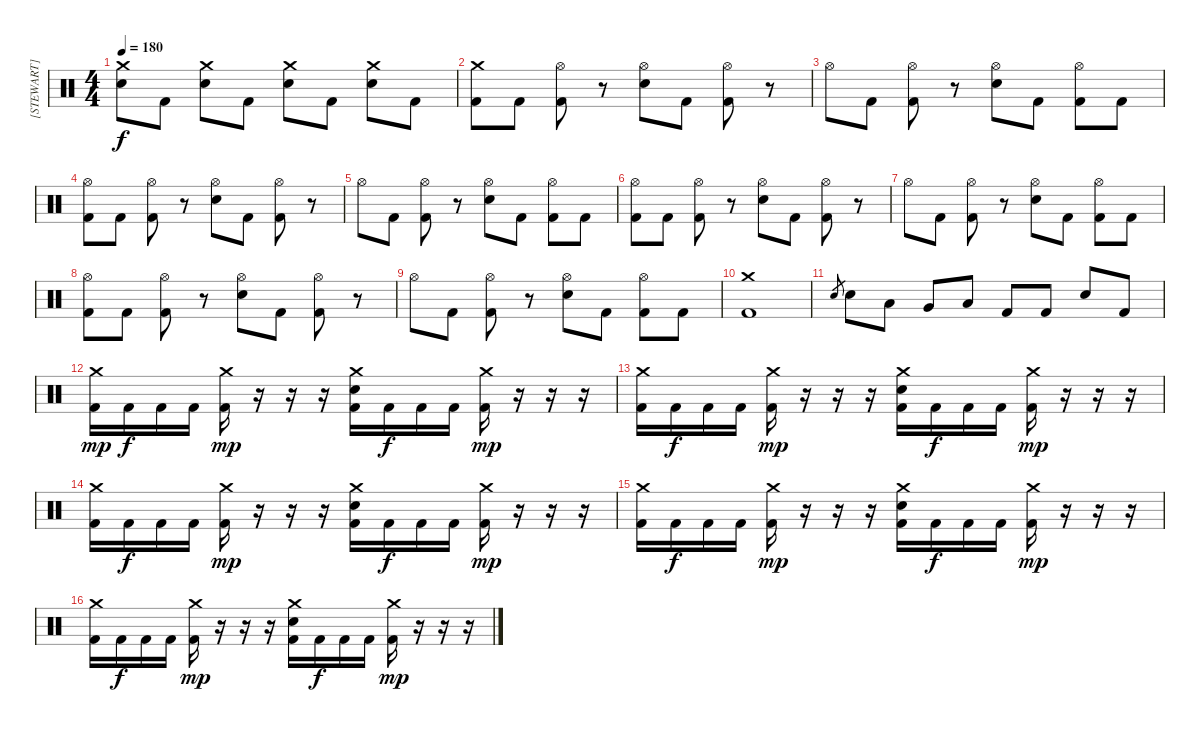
\track ("[STEWART]" "[STEWART]") {instrument percussion}
\staff {score}
\articulation defaults
\ts (4 4)
\tempo 180
\clef neutral
\ks c
("Crash medium (hit)" "Snare (hit) 2").8{dy f} "Kick (hit) 2".8 ("Crash medium (hit)" "Snare (hit) 2").8 "Kick (hit) 2".8 ("Crash medium (hit)" "Snare (hit) 2").8 "Kick (hit) 2".8 ("Crash medium (hit)" "Snare (hit) 2").8 "Kick (hit) 2".8 |
("Crash medium (hit)" "Kick (hit) 2").8 "Kick (hit) 2".8 ("Hi-Hat (open)" "Kick (hit) 2").8 r.8 ("Hi-Hat (open)" "Snare (hit) 2").8 "Kick (hit) 2".8 ("Hi-Hat (open)" "Kick (hit) 2").8 r.8 |
"Hi-Hat (open)".8 "Kick (hit) 2".8 ("Hi-Hat (open)" "Kick (hit) 2").8 r.8 ("Hi-Hat (open)" "Snare (hit) 2").8 "Kick (hit) 2".8 ("Hi-Hat (open)" "Kick (hit) 2").8 "Kick (hit) 2".8 |
("Hi-Hat (open)" "Kick (hit) 2").8 "Kick (hit) 2".8 ("Hi-Hat (open)" "Kick (hit) 2").8 r.8 ("Hi-Hat (open)" "Snare (hit) 2").8 "Kick (hit) 2".8 ("Hi-Hat (open)" "Kick (hit) 2").8 r.8 |
"Hi-Hat (open)".8 "Kick (hit) 2".8 ("Hi-Hat (open)" "Kick (hit) 2").8 r.8 ("Hi-Hat (open)" "Snare (hit) 2").8 "Kick (hit) 2".8 ("Hi-Hat (open)" "Kick (hit) 2").8 "Kick (hit) 2".8 |
("Hi-Hat (open)" "Kick (hit) 2").8 "Kick (hit) 2".8 ("Hi-Hat (open)" "Kick (hit) 2").8 r.8 ("Hi-Hat (open)" "Snare (hit) 2").8 "Kick (hit) 2".8 ("Hi-Hat (open)" "Kick (hit) 2").8 r.8 |
"Hi-Hat (open)".8 "Kick (hit) 2".8 ("Hi-Hat (open)" "Kick (hit) 2").8 r.8 ("Hi-Hat (open)" "Snare (hit) 2").8 "Kick (hit) 2".8 ("Hi-Hat (open)" "Kick (hit) 2").8 "Kick (hit) 2".8 |
("Hi-Hat (open)" "Kick (hit) 2").8 "Kick (hit) 2".8 ("Hi-Hat (open)" "Kick (hit) 2").8 r.8 ("Hi-Hat (open)" "Snare (hit) 2").8 "Kick (hit) 2".8 ("Hi-Hat (open)" "Kick (hit) 2").8 r.8 |
"Hi-Hat (open)".8 "Kick (hit) 2".8 ("Hi-Hat (open)" "Kick (hit) 2").8 r.8 ("Hi-Hat (open)" "Snare (hit) 2").8 "Kick (hit) 2".8 ("Hi-Hat (open)" "Kick (hit) 2").8 "Kick (hit) 2".8 |
("Crash medium (hit)" "Kick (hit) 2").1 |
"Snare (hit) 2".8{gr} "Snare (hit) 2".8 "Low Tom (hit)".8 "Very Low Tom (hit)".8 "Low Floor Tom (hit)".8 "Kick (hit) 2".8 "Kick (hit) 2".8 "Snare (hit) 2".8 "Kick (hit) 2".8 |
("Crash medium (hit)" "Kick (hit) 2").16{dy mp} "Kick (hit) 2".16{dy f} "Kick (hit) 2".16 "Kick (hit) 2".16 ("Crash medium (hit)" "Kick (hit) 2").16{dy mp} r.16 r.16 r.16 ("Crash medium (hit)" "Snare (hit) 2" "Kick (hit) 2").16 "Kick (hit) 2".16{dy f} "Kick (hit) 2".16 "Kick (hit) 2".16 ("Crash medium (hit)" "Kick (hit) 2").16{dy mp} r.16 r.16 r.16 |
("Crash medium (hit)" "Kick (hit) 2").16 "Kick (hit) 2".16{dy f} "Kick (hit) 2".16 "Kick (hit) 2".16 ("Crash medium (hit)" "Kick (hit) 2").16{dy mp} r.16 r.16 r.16 ("Crash medium (hit)" "Snare (hit) 2" "Kick (hit) 2").16 "Kick (hit) 2".16{dy f} "Kick (hit) 2".16 "Kick (hit) 2".16 ("Crash medium (hit)" "Kick (hit) 2").16{dy mp} r.16 r.16 r.16 |
("Crash medium (hit)" "Kick (hit) 2").16 "Kick (hit) 2".16{dy f} "Kick (hit) 2".16 "Kick (hit) 2".16 ("Crash medium (hit)" "Kick (hit) 2").16{dy mp} r.16 r.16 r.16 ("Crash medium (hit)" "Snare (hit) 2" "Kick (hit) 2").16 "Kick (hit) 2".16{dy f} "Kick (hit) 2".16 "Kick (hit) 2".16 ("Crash medium (hit)" "Kick (hit) 2").16{dy mp} r.16 r.16 r.16 |
("Crash medium (hit)" "Kick (hit) 2").16 "Kick (hit) 2".16{dy f} "Kick (hit) 2".16 "Kick (hit) 2".16 ("Crash medium (hit)" "Kick (hit) 2").16{dy mp} r.16 r.16 r.16 ("Crash medium (hit)" "Snare (hit) 2" "Kick (hit) 2").16 "Kick (hit) 2".16{dy f} "Kick (hit) 2".16 "Kick (hit) 2".16 ("Crash medium (hit)" "Kick (hit) 2").16{dy mp} r.16 r.16 r.16 |
("Crash medium (hit)" "Kick (hit) 2").16 "Kick (hit) 2".16{dy f} "Kick (hit) 2".16 "Kick (hit) 2".16 ("Crash medium (hit)" "Kick (hit) 2").16{dy mp} r.16 r.16 r.16 ("Crash medium (hit)" "Snare (hit) 2" "Kick (hit) 2").16 "Kick (hit) 2".16{dy f} "Kick (hit) 2".16 "Kick (hit) 2".16 ("Crash medium (hit)" "Kick (hit) 2").16{dy mp} r.16 r.16 r.16
